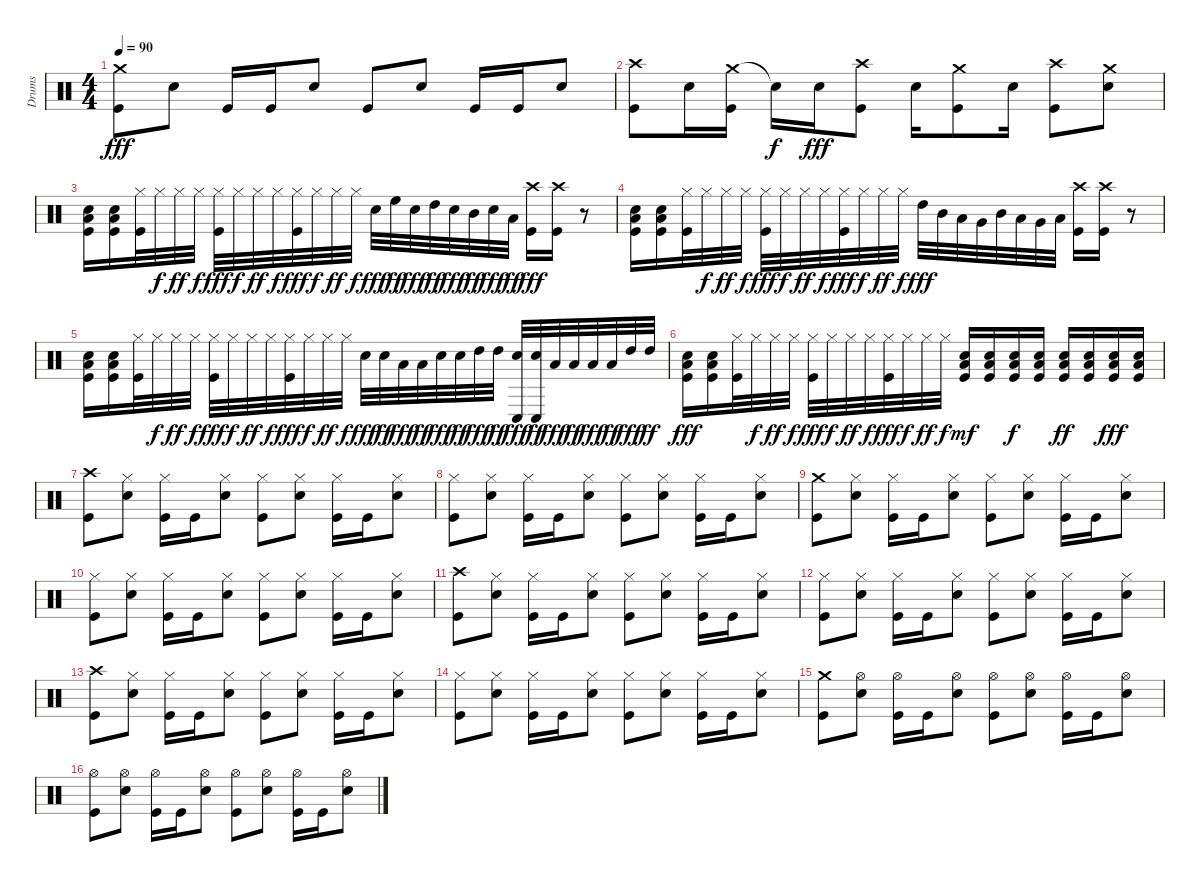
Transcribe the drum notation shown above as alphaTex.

\track ("Drums" "Drums") {instrument percussion}
\staff {score}
\articulation defaults
\ts (4 4)
\tempo 90
\clef neutral
\ks c
("Crash medium (hit)" "Kick (hit)").8{dy fff} "Snare (hit) 2".8 "Kick (hit)".16 "Kick (hit)".16 "Snare (hit) 2".8 "Kick (hit)".8 "Snare (hit) 2".8 "Kick (hit)".16 "Kick (hit)".16 "Snare (hit) 2".8 |
("Crash high (hit)" "Kick (hit)").8 "Snare (hit) 2".16 ("Crash medium (hit)" "Kick (hit)").16 "Snare (hit)"{t}.16{dy f} "Snare (hit) 2".16{dy fff} ("Crash high (hit)" "Kick (hit)").8 "Snare (hit) 2".16 ("Crash medium (hit)" "Kick (hit)").8 "Snare (hit) 2".16 ("Crash high (hit)" "Kick (hit)").8 ("Crash medium (hit)" "Snare (hit) 2").8 |
("Low Floor Tom (hit)" "Snare (hit) 2" "Kick (hit)").16 ("Low Floor Tom (hit)" "Snare (hit) 2" "Kick (hit)").16 ("Hi-Hat (closed)" "Kick (hit)").32 "Hi-Hat (closed)".32{dy f} "Hi-Hat (closed)".32{dy ff} "Hi-Hat (closed)".32{dy f} ("Hi-Hat (closed)" "Kick (hit)").32{dy fff} "Hi-Hat (closed)".32{dy f} "Hi-Hat (closed)".32{dy ff} "Hi-Hat (closed)".32{dy f} ("Hi-Hat (closed)" "Kick (hit)").32{dy fff} "Hi-Hat (closed)".32{dy f} "Hi-Hat (closed)".32{dy ff} "Hi-Hat (closed)".32{dy f} "Snare (hit) 2".32{dy fff} "High Floor Tom (hit)".32{dy ff} "Snare (hit) 2".32{dy fff} "High Tom (hit)".32{dy ff} "Snare (hit) 2".32{dy fff} "Mid Tom (hit)".32{dy ff} "Snare (hit) 2".32{dy fff} "Low Tom (hit)".32{dy ff} ("Crash high (hit)" "Kick (hit)").16{dy fff} ("Crash high (hit)" "Kick (hit)").16 r.8 |
("Low Floor Tom (hit)" "Snare (hit) 2" "Kick (hit)").16 ("Low Floor Tom (hit)" "Snare (hit) 2" "Kick (hit)").16 ("Hi-Hat (closed)" "Kick (hit)").32 "Hi-Hat (closed)".32{dy f} "Hi-Hat (closed)".32{dy ff} "Hi-Hat (closed)".32{dy f} ("Hi-Hat (closed)" "Kick (hit)").32{dy fff} "Hi-Hat (closed)".32{dy f} "Hi-Hat (closed)".32{dy ff} "Hi-Hat (closed)".32{dy f} ("Hi-Hat (closed)" "Kick (hit)").32{dy fff} "Hi-Hat (closed)".32{dy f} "Hi-Hat (closed)".32{dy ff} "Hi-Hat (closed)".32{dy f} "High Tom (hit)".32{dy fff} "Mid Tom (hit)".32 "Low Tom (hit)".32 "Very Low Tom (hit)".32 "Mid Tom (hit)".32 "Low Tom (hit)".32 "Very Low Tom (hit)".32 "Low Floor Tom (hit)".32 ("Crash high (hit)" "Kick (hit)").16 ("Crash high (hit)" "Kick (hit)").16 r.8 |
("Low Floor Tom (hit)" "Snare (hit) 2" "Kick (hit)").16 ("Low Floor Tom (hit)" "Snare (hit) 2" "Kick (hit)").16 ("Hi-Hat (closed)" "Kick (hit)").32 "Hi-Hat (closed)".32{dy f} "Hi-Hat (closed)".32{dy ff} "Hi-Hat (closed)".32{dy f} ("Hi-Hat (closed)" "Kick (hit)").32{dy fff} "Hi-Hat (closed)".32{dy f} "Hi-Hat (closed)".32{dy ff} "Hi-Hat (closed)".32{dy f} ("Hi-Hat (closed)" "Kick (hit)").32{dy fff} "Hi-Hat (closed)".32{dy f} "Hi-Hat (closed)".32{dy ff} "Hi-Hat (closed)".32{dy f} "Snare (hit) 2".32{dy fff} "Snare (hit) 2".32{dy ff} "Low Floor Tom (hit)".32{dy fff} "Low Floor Tom (hit)".32{dy ff} "Snare (hit) 2".32{dy fff} "Snare (hit) 2".32{dy ff} "High Tom (hit)".32{dy fff} "High Tom (hit)".32{dy ff} ("Conga low (hit)" "Snare (hit) 2").32{dy fff} ("Conga low (hit)" "Snare (hit) 2").32{dy ff} "Low Floor Tom (hit)".32{dy fff} "Low Floor Tom (hit)".32{dy ff} "Low Tom (hit)".32{dy fff} "Low Tom (hit)".32{dy ff} "High Tom (hit)".32{dy fff} "High Tom (hit)".32{dy ff} |
("Low Floor Tom (hit)" "Snare (hit) 2" "Kick (hit)").16{dy fff} ("Low Floor Tom (hit)" "Snare (hit) 2" "Kick (hit)").16 ("Hi-Hat (closed)" "Kick (hit)").32 "Hi-Hat (closed)".32{dy f} "Hi-Hat (closed)".32{dy ff} "Hi-Hat (closed)".32{dy f} ("Hi-Hat (closed)" "Kick (hit)").32{dy fff} "Hi-Hat (closed)".32{dy f} "Hi-Hat (closed)".32{dy ff} "Hi-Hat (closed)".32{dy f} ("Hi-Hat (closed)" "Kick (hit)").32{dy fff} "Hi-Hat (closed)".32{dy f} "Hi-Hat (closed)".32{dy ff} "Hi-Hat (closed)".32{dy f} ("Low Tom (hit)" "Snare (hit) 2" "Kick (hit)").16{dy mf} ("Low Tom (hit)" "Snare (hit) 2" "Kick (hit)").16 ("Low Tom (hit)" "Snare (hit) 2" "Kick (hit)").16{dy f} ("Low Tom (hit)" "Snare (hit) 2" "Kick (hit)").16 ("Low Tom (hit)" "Snare (hit) 2" "Kick (hit)").16{dy ff} ("Low Tom (hit)" "Snare (hit) 2" "Kick (hit)").16 ("Low Tom (hit)" "Snare (hit) 2" "Kick (hit)").16{dy fff} ("Low Tom (hit)" "Snare (hit) 2" "Kick (hit)").16 |
("Crash high (hit)" "Kick (hit)").8 ("Hi-Hat (closed)" "Snare (hit) 2").8 ("Hi-Hat (closed)" "Kick (hit)").16 "Kick (hit)".16 ("Hi-Hat (closed)" "Snare (hit) 2").8 ("Hi-Hat (closed)" "Kick (hit)").8 ("Hi-Hat (closed)" "Snare (hit) 2").8 ("Hi-Hat (closed)" "Kick (hit)").16 "Kick (hit)".16 ("Hi-Hat (closed)" "Snare (hit) 2").8 |
("Hi-Hat (closed)" "Kick (hit)").8 ("Hi-Hat (closed)" "Snare (hit) 2").8 ("Hi-Hat (closed)" "Kick (hit)").16 "Kick (hit)".16 ("Hi-Hat (closed)" "Snare (hit) 2").8 ("Hi-Hat (closed)" "Kick (hit)").8 ("Hi-Hat (closed)" "Snare (hit) 2").8 ("Hi-Hat (closed)" "Kick (hit)").16 "Kick (hit)".16 ("Hi-Hat (closed)" "Snare (hit) 2").8 |
("Crash medium (hit)" "Kick (hit)").8 ("Hi-Hat (closed)" "Snare (hit) 2").8 ("Hi-Hat (closed)" "Kick (hit)").16 "Kick (hit)".16 ("Hi-Hat (closed)" "Snare (hit) 2").8 ("Hi-Hat (closed)" "Kick (hit)").8 ("Hi-Hat (closed)" "Snare (hit) 2").8 ("Hi-Hat (closed)" "Kick (hit)").16 "Kick (hit)".16 ("Hi-Hat (closed)" "Snare (hit) 2").8 |
("Hi-Hat (closed)" "Kick (hit)").8 ("Hi-Hat (closed)" "Snare (hit) 2").8 ("Hi-Hat (closed)" "Kick (hit)").16 "Kick (hit)".16 ("Hi-Hat (closed)" "Snare (hit) 2").8 ("Hi-Hat (closed)" "Kick (hit)").8 ("Hi-Hat (closed)" "Snare (hit) 2").8 ("Hi-Hat (closed)" "Kick (hit)").16 "Kick (hit)".16 ("Hi-Hat (closed)" "Snare (hit) 2").8 |
("Crash high (hit)" "Kick (hit)").8 ("Hi-Hat (closed)" "Snare (hit) 2").8 ("Hi-Hat (closed)" "Kick (hit)").16 "Kick (hit)".16 ("Hi-Hat (closed)" "Snare (hit) 2").8 ("Hi-Hat (closed)" "Kick (hit)").8 ("Hi-Hat (closed)" "Snare (hit) 2").8 ("Hi-Hat (closed)" "Kick (hit)").16 "Kick (hit)".16 ("Hi-Hat (closed)" "Snare (hit) 2").8 |
("Hi-Hat (closed)" "Kick (hit)").8 ("Hi-Hat (closed)" "Snare (hit) 2").8 ("Hi-Hat (closed)" "Kick (hit)").16 "Kick (hit)".16 ("Hi-Hat (closed)" "Snare (hit) 2").8 ("Hi-Hat (closed)" "Kick (hit)").8 ("Hi-Hat (closed)" "Snare (hit) 2").8 ("Hi-Hat (closed)" "Kick (hit)").16 "Kick (hit)".16 ("Hi-Hat (closed)" "Snare (hit) 2").8 |
("Crash high (hit)" "Kick (hit)").8 ("Hi-Hat (closed)" "Snare (hit) 2").8 ("Hi-Hat (closed)" "Kick (hit)").16 "Kick (hit)".16 ("Hi-Hat (closed)" "Snare (hit) 2").8 ("Hi-Hat (closed)" "Kick (hit)").8 ("Hi-Hat (closed)" "Snare (hit) 2").8 ("Hi-Hat (closed)" "Kick (hit)").16 "Kick (hit)".16 ("Hi-Hat (closed)" "Snare (hit) 2").8 |
("Hi-Hat (closed)" "Kick (hit)").8 ("Hi-Hat (closed)" "Snare (hit) 2").8 ("Hi-Hat (closed)" "Kick (hit)").16 "Kick (hit)".16 ("Hi-Hat (closed)" "Snare (hit) 2").8 ("Hi-Hat (closed)" "Kick (hit)").8 ("Hi-Hat (closed)" "Snare (hit) 2").8 ("Hi-Hat (closed)" "Kick (hit)").16 "Kick (hit)".16 ("Hi-Hat (closed)" "Snare (hit) 2").8 |
("Crash medium (hit)" "Kick (hit)").8 ("Hi-Hat (open)" "Snare (hit) 2").8 ("Hi-Hat (open)" "Kick (hit)").16 "Kick (hit)".16 ("Hi-Hat (open)" "Snare (hit) 2").8 ("Hi-Hat (open)" "Kick (hit)").8 ("Hi-Hat (open)" "Snare (hit) 2").8 ("Hi-Hat (open)" "Kick (hit)").16 "Kick (hit)".16 ("Hi-Hat (open)" "Snare (hit) 2").8 |
("Hi-Hat (open)" "Kick (hit)").8 ("Hi-Hat (open)" "Snare (hit) 2").8 ("Hi-Hat (open)" "Kick (hit)").16 "Kick (hit)".16 ("Hi-Hat (open)" "Snare (hit) 2").8 ("Hi-Hat (open)" "Kick (hit)").8 ("Hi-Hat (open)" "Snare (hit) 2").8 ("Hi-Hat (open)" "Kick (hit)").16 "Kick (hit)".16 ("Hi-Hat (open)" "Snare (hit) 2").8
